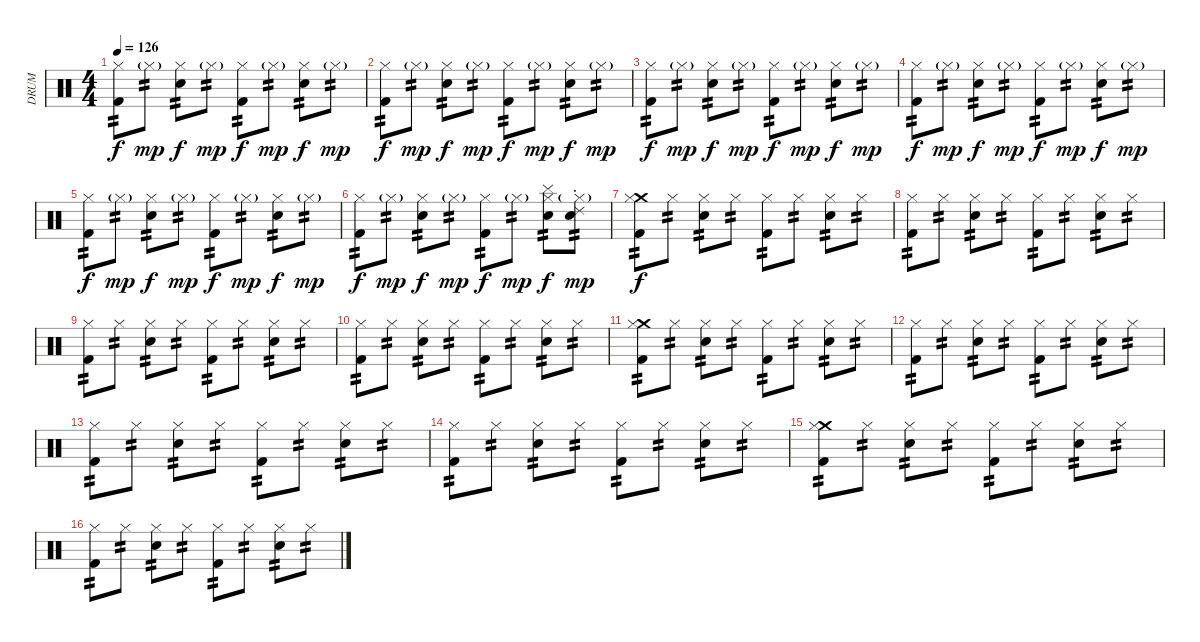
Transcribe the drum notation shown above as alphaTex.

\track ("DRUM" "DRUM") {instrument percussion}
\staff {score}
\articulation defaults
\ts (4 4)
\tempo 126
\clef neutral
\ks c
("Hi-Hat (closed)" "Kick (hit) 2").8{tp 2 dy f} "Hi-Hat (closed)"{g}.8{tp 2 dy mp} ("Hi-Hat (closed)" "Electric Snare (hit)").8{tp 2 dy f} "Hi-Hat (closed)"{g}.8{tp 2 dy mp} ("Hi-Hat (closed)" "Kick (hit) 2").8{tp 2 dy f} "Hi-Hat (closed)"{g}.8{tp 2 dy mp} ("Hi-Hat (closed)" "Electric Snare (hit)").8{tp 2 dy f} "Hi-Hat (closed)"{g}.8{tp 2 dy mp} |
("Hi-Hat (closed)" "Kick (hit) 2").8{tp 2 dy f} "Hi-Hat (closed)"{g}.8{tp 2 dy mp} ("Hi-Hat (closed)" "Electric Snare (hit)").8{tp 2 dy f} "Hi-Hat (closed)"{g}.8{tp 2 dy mp} ("Hi-Hat (closed)" "Kick (hit) 2").8{tp 2 dy f} "Hi-Hat (closed)"{g}.8{tp 2 dy mp} ("Hi-Hat (closed)" "Electric Snare (hit)").8{tp 2 dy f} "Hi-Hat (closed)"{g}.8{tp 2 dy mp} |
("Hi-Hat (closed)" "Kick (hit) 2").8{tp 2 dy f} "Hi-Hat (closed)"{g}.8{tp 2 dy mp} ("Hi-Hat (closed)" "Electric Snare (hit)").8{tp 2 dy f} "Hi-Hat (closed)"{g}.8{tp 2 dy mp} ("Hi-Hat (closed)" "Kick (hit) 2").8{tp 2 dy f} "Hi-Hat (closed)"{g}.8{tp 2 dy mp} ("Hi-Hat (closed)" "Electric Snare (hit)").8{tp 2 dy f} "Hi-Hat (closed)"{g}.8{tp 2 dy mp} |
("Hi-Hat (closed)" "Kick (hit) 2").8{tp 2 dy f} "Hi-Hat (closed)"{g}.8{tp 2 dy mp} ("Hi-Hat (closed)" "Electric Snare (hit)").8{tp 2 dy f} "Hi-Hat (closed)"{g}.8{tp 2 dy mp} ("Hi-Hat (closed)" "Kick (hit) 2").8{tp 2 dy f} "Hi-Hat (closed)"{g}.8{tp 2 dy mp} ("Hi-Hat (closed)" "Electric Snare (hit)").8{tp 2 dy f} "Hi-Hat (closed)"{g}.8{tp 2 dy mp} |
("Hi-Hat (closed)" "Kick (hit) 2").8{tp 2 dy f} "Hi-Hat (closed)"{g}.8{tp 2 dy mp} ("Hi-Hat (closed)" "Electric Snare (hit)").8{tp 2 dy f} "Hi-Hat (closed)"{g}.8{tp 2 dy mp} ("Hi-Hat (closed)" "Kick (hit) 2").8{tp 2 dy f} "Hi-Hat (closed)"{g}.8{tp 2 dy mp} ("Hi-Hat (closed)" "Electric Snare (hit)").8{tp 2 dy f} "Hi-Hat (closed)"{g}.8{tp 2 dy mp} |
("Hi-Hat (closed)" "Kick (hit) 2").8{tp 2 dy f} "Hi-Hat (closed)"{g}.8{tp 2 dy mp} ("Hi-Hat (closed)" "Electric Snare (hit)").8{tp 2 dy f} "Hi-Hat (closed)"{g}.8{tp 2 dy mp} ("Hi-Hat (closed)" "Kick (hit) 2").8{tp 2 dy f} "Hi-Hat (closed)"{g}.8{tp 2 dy mp} ("Hi-Hat (closed)" "Cymbal (hit)" "Electric Snare (hit)").8{tp 2 dy f} ("Hi-Hat (closed)"{g} "Ride (choke) 2" "Electric Snare (hit)").8{tp 2 dy mp} |
("Crash medium (hit)" "Hi-Hat (closed)" "Kick (hit) 2").8{tp 2 dy f} "Hi-Hat (closed)".8{tp 2} ("Hi-Hat (closed)" "Electric Snare (hit)").8{tp 2} "Hi-Hat (closed)".8{tp 2} ("Hi-Hat (closed)" "Kick (hit) 2").8{tp 2} "Hi-Hat (closed)".8{tp 2} ("Hi-Hat (closed)" "Electric Snare (hit)").8{tp 2} "Hi-Hat (closed)".8{tp 2} |
("Hi-Hat (closed)" "Kick (hit) 2").8{tp 2} "Hi-Hat (closed)".8{tp 2} ("Hi-Hat (closed)" "Electric Snare (hit)").8{tp 2} "Hi-Hat (closed)".8{tp 2} ("Hi-Hat (closed)" "Kick (hit) 2").8{tp 2} "Hi-Hat (closed)".8{tp 2} ("Hi-Hat (closed)" "Electric Snare (hit)").8{tp 2} "Hi-Hat (closed)".8{tp 2} |
("Hi-Hat (closed)" "Kick (hit) 2").8{tp 2} "Hi-Hat (closed)".8{tp 2} ("Hi-Hat (closed)" "Electric Snare (hit)").8{tp 2} "Hi-Hat (closed)".8{tp 2} ("Hi-Hat (closed)" "Kick (hit) 2").8{tp 2} "Hi-Hat (closed)".8{tp 2} ("Hi-Hat (closed)" "Electric Snare (hit)").8{tp 2} "Hi-Hat (closed)".8{tp 2} |
("Hi-Hat (closed)" "Kick (hit) 2").8{tp 2} "Hi-Hat (closed)".8{tp 2} ("Hi-Hat (closed)" "Electric Snare (hit)").8{tp 2} "Hi-Hat (closed)".8{tp 2} ("Hi-Hat (closed)" "Kick (hit) 2").8{tp 2} "Hi-Hat (closed)".8{tp 2} ("Hi-Hat (closed)" "Electric Snare (hit)").8{tp 2} "Hi-Hat (closed)".8{tp 2} |
("Crash medium (hit)" "Hi-Hat (closed)" "Kick (hit) 2").8{tp 2} "Hi-Hat (closed)".8{tp 2} ("Hi-Hat (closed)" "Electric Snare (hit)").8{tp 2} "Hi-Hat (closed)".8{tp 2} ("Hi-Hat (closed)" "Kick (hit) 2").8{tp 2} "Hi-Hat (closed)".8{tp 2} ("Hi-Hat (closed)" "Electric Snare (hit)").8{tp 2} "Hi-Hat (closed)".8{tp 2} |
("Hi-Hat (closed)" "Kick (hit) 2").8{tp 2} "Hi-Hat (closed)".8{tp 2} ("Hi-Hat (closed)" "Electric Snare (hit)").8{tp 2} "Hi-Hat (closed)".8{tp 2} ("Hi-Hat (closed)" "Kick (hit) 2").8{tp 2} "Hi-Hat (closed)".8{tp 2} ("Hi-Hat (closed)" "Electric Snare (hit)").8{tp 2} "Hi-Hat (closed)".8{tp 2} |
("Hi-Hat (closed)" "Kick (hit) 2").8{tp 2} "Hi-Hat (closed)".8{tp 2} ("Hi-Hat (closed)" "Electric Snare (hit)").8{tp 2} "Hi-Hat (closed)".8{tp 2} ("Hi-Hat (closed)" "Kick (hit) 2").8{tp 2} "Hi-Hat (closed)".8{tp 2} ("Hi-Hat (closed)" "Electric Snare (hit)").8{tp 2} "Hi-Hat (closed)".8{tp 2} |
("Hi-Hat (closed)" "Kick (hit) 2").8{tp 2} "Hi-Hat (closed)".8{tp 2} ("Hi-Hat (closed)" "Electric Snare (hit)").8{tp 2} "Hi-Hat (closed)".8{tp 2} ("Hi-Hat (closed)" "Kick (hit) 2").8{tp 2} "Hi-Hat (closed)".8{tp 2} ("Hi-Hat (closed)" "Electric Snare (hit)").8{tp 2} "Hi-Hat (closed)".8{tp 2} |
("Crash medium (hit)" "Hi-Hat (closed)" "Kick (hit) 2").8{tp 2} "Hi-Hat (closed)".8{tp 2} ("Hi-Hat (closed)" "Electric Snare (hit)").8{tp 2} "Hi-Hat (closed)".8{tp 2} ("Hi-Hat (closed)" "Kick (hit) 2").8{tp 2} "Hi-Hat (closed)".8{tp 2} ("Hi-Hat (closed)" "Electric Snare (hit)").8{tp 2} "Hi-Hat (closed)".8{tp 2} |
("Hi-Hat (closed)" "Kick (hit) 2").8{tp 2} "Hi-Hat (closed)".8{tp 2} ("Hi-Hat (closed)" "Electric Snare (hit)").8{tp 2} "Hi-Hat (closed)".8{tp 2} ("Hi-Hat (closed)" "Kick (hit) 2").8{tp 2} "Hi-Hat (closed)".8{tp 2} ("Hi-Hat (closed)" "Electric Snare (hit)").8{tp 2} "Hi-Hat (closed)".8{tp 2}
